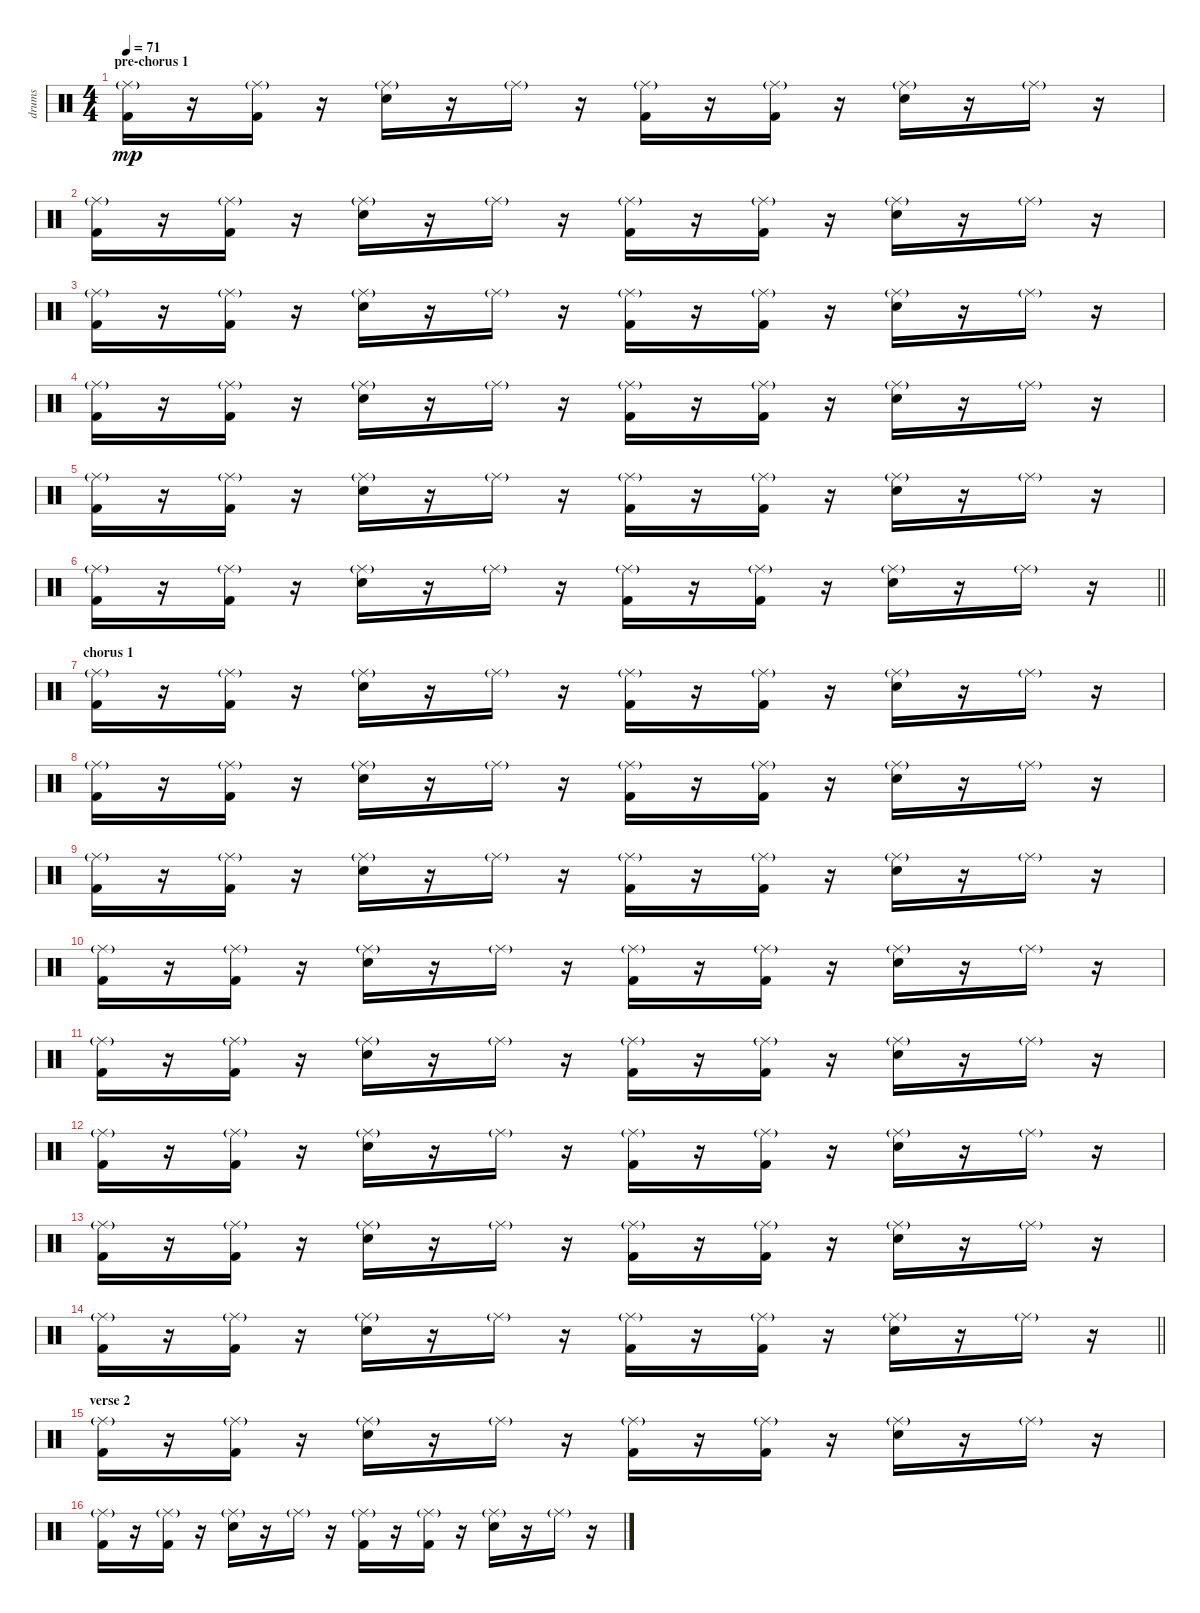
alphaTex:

\track ("drums" "drums") {instrument percussion}
\staff {score}
\articulation defaults
\ts (4 4)
\section ("" "pre-chorus 1")
\tempo 71
\clef neutral
\ks c
("Kick (hit) 2" "Ride (middle)"{g}).16{dy mp} r.16 ("Kick (hit) 2" "Ride (middle)"{g}).16 r.16 ("Electric Snare (hit)" "Ride (middle)"{g}).16 r.16 "Ride (middle)"{g}.16 r.16 ("Kick (hit) 2" "Ride (middle)"{g}).16 r.16 ("Kick (hit) 2" "Ride (middle)"{g}).16 r.16 ("Electric Snare (hit)" "Ride (middle)"{g}).16 r.16 "Ride (middle)"{g}.16 r.16 |
("Kick (hit) 2" "Ride (middle)"{g}).16 r.16 ("Kick (hit) 2" "Ride (middle)"{g}).16 r.16 ("Electric Snare (hit)" "Ride (middle)"{g}).16 r.16 "Ride (middle)"{g}.16 r.16 ("Kick (hit) 2" "Ride (middle)"{g}).16 r.16 ("Kick (hit) 2" "Ride (middle)"{g}).16 r.16 ("Electric Snare (hit)" "Ride (middle)"{g}).16 r.16 "Ride (middle)"{g}.16 r.16 |
("Kick (hit) 2" "Ride (middle)"{g}).16 r.16 ("Kick (hit) 2" "Ride (middle)"{g}).16 r.16 ("Electric Snare (hit)" "Ride (middle)"{g}).16 r.16 "Ride (middle)"{g}.16 r.16 ("Kick (hit) 2" "Ride (middle)"{g}).16 r.16 ("Kick (hit) 2" "Ride (middle)"{g}).16 r.16 ("Electric Snare (hit)" "Ride (middle)"{g}).16 r.16 "Ride (middle)"{g}.16 r.16 |
("Kick (hit) 2" "Ride (middle)"{g}).16 r.16 ("Kick (hit) 2" "Ride (middle)"{g}).16 r.16 ("Electric Snare (hit)" "Ride (middle)"{g}).16 r.16 "Ride (middle)"{g}.16 r.16 ("Kick (hit) 2" "Ride (middle)"{g}).16 r.16 ("Kick (hit) 2" "Ride (middle)"{g}).16 r.16 ("Electric Snare (hit)" "Ride (middle)"{g}).16 r.16 "Ride (middle)"{g}.16 r.16 |
("Kick (hit) 2" "Ride (middle)"{g}).16 r.16 ("Kick (hit) 2" "Ride (middle)"{g}).16 r.16 ("Electric Snare (hit)" "Ride (middle)"{g}).16 r.16 "Ride (middle)"{g}.16 r.16 ("Kick (hit) 2" "Ride (middle)"{g}).16 r.16 ("Kick (hit) 2" "Ride (middle)"{g}).16 r.16 ("Electric Snare (hit)" "Ride (middle)"{g}).16 r.16 "Ride (middle)"{g}.16 r.16 |
\barLineRight lightlight
("Kick (hit) 2" "Ride (middle)"{g}).16 r.16 ("Kick (hit) 2" "Ride (middle)"{g}).16 r.16 ("Electric Snare (hit)" "Ride (middle)"{g}).16 r.16 "Ride (middle)"{g}.16 r.16 ("Kick (hit) 2" "Ride (middle)"{g}).16 r.16 ("Kick (hit) 2" "Ride (middle)"{g}).16 r.16 ("Electric Snare (hit)" "Ride (middle)"{g}).16 r.16 "Ride (middle)"{g}.16 r.16 |
\section ("" "chorus 1")
("Kick (hit) 2" "Ride (middle)"{g}).16 r.16 ("Kick (hit) 2" "Ride (middle)"{g}).16 r.16 ("Electric Snare (hit)" "Ride (middle)"{g}).16 r.16 "Ride (middle)"{g}.16 r.16 ("Kick (hit) 2" "Ride (middle)"{g}).16 r.16 ("Kick (hit) 2" "Ride (middle)"{g}).16 r.16 ("Electric Snare (hit)" "Ride (middle)"{g}).16 r.16 "Ride (middle)"{g}.16 r.16 |
("Kick (hit) 2" "Ride (middle)"{g}).16 r.16 ("Kick (hit) 2" "Ride (middle)"{g}).16 r.16 ("Electric Snare (hit)" "Ride (middle)"{g}).16 r.16 "Ride (middle)"{g}.16 r.16 ("Kick (hit) 2" "Ride (middle)"{g}).16 r.16 ("Kick (hit) 2" "Ride (middle)"{g}).16 r.16 ("Electric Snare (hit)" "Ride (middle)"{g}).16 r.16 "Ride (middle)"{g}.16 r.16 |
("Kick (hit) 2" "Ride (middle)"{g}).16 r.16 ("Kick (hit) 2" "Ride (middle)"{g}).16 r.16 ("Electric Snare (hit)" "Ride (middle)"{g}).16 r.16 "Ride (middle)"{g}.16 r.16 ("Kick (hit) 2" "Ride (middle)"{g}).16 r.16 ("Kick (hit) 2" "Ride (middle)"{g}).16 r.16 ("Electric Snare (hit)" "Ride (middle)"{g}).16 r.16 "Ride (middle)"{g}.16 r.16 |
("Kick (hit) 2" "Ride (middle)"{g}).16 r.16 ("Kick (hit) 2" "Ride (middle)"{g}).16 r.16 ("Electric Snare (hit)" "Ride (middle)"{g}).16 r.16 "Ride (middle)"{g}.16 r.16 ("Kick (hit) 2" "Ride (middle)"{g}).16 r.16 ("Kick (hit) 2" "Ride (middle)"{g}).16 r.16 ("Electric Snare (hit)" "Ride (middle)"{g}).16 r.16 "Ride (middle)"{g}.16 r.16 |
("Kick (hit) 2" "Ride (middle)"{g}).16 r.16 ("Kick (hit) 2" "Ride (middle)"{g}).16 r.16 ("Electric Snare (hit)" "Ride (middle)"{g}).16 r.16 "Ride (middle)"{g}.16 r.16 ("Kick (hit) 2" "Ride (middle)"{g}).16 r.16 ("Kick (hit) 2" "Ride (middle)"{g}).16 r.16 ("Electric Snare (hit)" "Ride (middle)"{g}).16 r.16 "Ride (middle)"{g}.16 r.16 |
("Kick (hit) 2" "Ride (middle)"{g}).16 r.16 ("Kick (hit) 2" "Ride (middle)"{g}).16 r.16 ("Electric Snare (hit)" "Ride (middle)"{g}).16 r.16 "Ride (middle)"{g}.16 r.16 ("Kick (hit) 2" "Ride (middle)"{g}).16 r.16 ("Kick (hit) 2" "Ride (middle)"{g}).16 r.16 ("Electric Snare (hit)" "Ride (middle)"{g}).16 r.16 "Ride (middle)"{g}.16 r.16 |
("Kick (hit) 2" "Ride (middle)"{g}).16 r.16 ("Kick (hit) 2" "Ride (middle)"{g}).16 r.16 ("Electric Snare (hit)" "Ride (middle)"{g}).16 r.16 "Ride (middle)"{g}.16 r.16 ("Kick (hit) 2" "Ride (middle)"{g}).16 r.16 ("Kick (hit) 2" "Ride (middle)"{g}).16 r.16 ("Electric Snare (hit)" "Ride (middle)"{g}).16 r.16 "Ride (middle)"{g}.16 r.16 |
\barLineRight lightlight
("Kick (hit) 2" "Ride (middle)"{g}).16 r.16 ("Kick (hit) 2" "Ride (middle)"{g}).16 r.16 ("Electric Snare (hit)" "Ride (middle)"{g}).16 r.16 "Ride (middle)"{g}.16 r.16 ("Kick (hit) 2" "Ride (middle)"{g}).16 r.16 ("Kick (hit) 2" "Ride (middle)"{g}).16 r.16 ("Electric Snare (hit)" "Ride (middle)"{g}).16 r.16 "Ride (middle)"{g}.16 r.16 |
\section ("" "verse 2")
("Kick (hit) 2" "Ride (middle)"{g}).16 r.16 ("Kick (hit) 2" "Ride (middle)"{g}).16 r.16 ("Electric Snare (hit)" "Ride (middle)"{g}).16 r.16 "Ride (middle)"{g}.16 r.16 ("Kick (hit) 2" "Ride (middle)"{g}).16 r.16 ("Kick (hit) 2" "Ride (middle)"{g}).16 r.16 ("Electric Snare (hit)" "Ride (middle)"{g}).16 r.16 "Ride (middle)"{g}.16 r.16 |
("Kick (hit) 2" "Ride (middle)"{g}).16 r.16 ("Kick (hit) 2" "Ride (middle)"{g}).16 r.16 ("Electric Snare (hit)" "Ride (middle)"{g}).16 r.16 "Ride (middle)"{g}.16 r.16 ("Kick (hit) 2" "Ride (middle)"{g}).16 r.16 ("Kick (hit) 2" "Ride (middle)"{g}).16 r.16 ("Electric Snare (hit)" "Ride (middle)"{g}).16 r.16 "Ride (middle)"{g}.16 r.16
